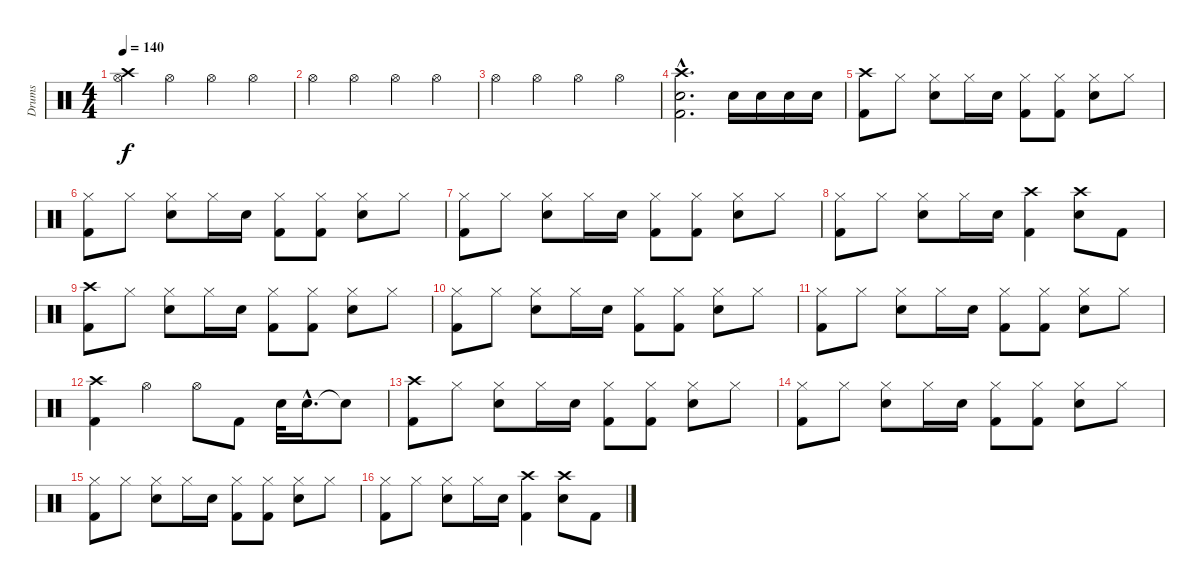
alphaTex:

\track ("Drums" "Drums") {instrument percussion}
\staff {score}
\articulation defaults
\ts (4 4)
\tempo 140
\clef neutral
\ks c
("Crash high (hit)" "Hi-Hat (open)").4{dy f} "Hi-Hat (open)".4 "Hi-Hat (open)".4 "Hi-Hat (open)".4 |
"Hi-Hat (open)".4 "Hi-Hat (open)".4 "Hi-Hat (open)".4 "Hi-Hat (open)".4 |
"Hi-Hat (open)".4 "Hi-Hat (open)".4 "Hi-Hat (open)".4 "Hi-Hat (open)".4 |
("Crash high (hit)"{hac} "Snare (hit) 2"{hac} "Kick (hit) 2"{hac}).2{d} "Snare (hit) 2".16 "Snare (hit) 2".16 "Snare (hit) 2".16 "Snare (hit) 2".16 |
("Crash high (hit)" "Kick (hit) 2").8 "Hi-Hat (closed)".8 ("Hi-Hat (closed)" "Snare (hit) 2").8 "Hi-Hat (closed)".16 "Snare (hit) 2".16 ("Hi-Hat (closed)" "Kick (hit) 2").8 ("Hi-Hat (closed)" "Kick (hit) 2").8 ("Hi-Hat (closed)" "Snare (hit) 2").8 "Hi-Hat (closed)".8 |
("Hi-Hat (closed)" "Kick (hit) 2").8 "Hi-Hat (closed)".8 ("Hi-Hat (closed)" "Snare (hit) 2").8 "Hi-Hat (closed)".16 "Snare (hit) 2".16 ("Hi-Hat (closed)" "Kick (hit) 2").8 ("Hi-Hat (closed)" "Kick (hit) 2").8 ("Hi-Hat (closed)" "Snare (hit) 2").8 "Hi-Hat (closed)".8 |
("Hi-Hat (closed)" "Kick (hit) 2").8 "Hi-Hat (closed)".8 ("Hi-Hat (closed)" "Snare (hit) 2").8 "Hi-Hat (closed)".16 "Snare (hit) 2".16 ("Hi-Hat (closed)" "Kick (hit) 2").8 ("Hi-Hat (closed)" "Kick (hit) 2").8 ("Hi-Hat (closed)" "Snare (hit) 2").8 "Hi-Hat (closed)".8 |
("Hi-Hat (closed)" "Kick (hit) 2").8 "Hi-Hat (closed)".8 ("Hi-Hat (closed)" "Snare (hit) 2").8 "Hi-Hat (closed)".16 "Snare (hit) 2".16 ("Crash high (hit)" "Kick (hit) 2").4 ("Crash high (hit)" "Snare (hit) 2").8 "Kick (hit) 2".8 |
("Crash high (hit)" "Kick (hit) 2").8 "Hi-Hat (closed)".8 ("Hi-Hat (closed)" "Snare (hit) 2").8 "Hi-Hat (closed)".16 "Snare (hit) 2".16 ("Hi-Hat (closed)" "Kick (hit) 2").8 ("Hi-Hat (closed)" "Kick (hit) 2").8 ("Hi-Hat (closed)" "Snare (hit) 2").8 "Hi-Hat (closed)".8 |
("Hi-Hat (closed)" "Kick (hit) 2").8 "Hi-Hat (closed)".8 ("Hi-Hat (closed)" "Snare (hit) 2").8 "Hi-Hat (closed)".16 "Snare (hit) 2".16 ("Hi-Hat (closed)" "Kick (hit) 2").8 ("Hi-Hat (closed)" "Kick (hit) 2").8 ("Hi-Hat (closed)" "Snare (hit) 2").8 "Hi-Hat (closed)".8 |
("Hi-Hat (closed)" "Kick (hit) 2").8 "Hi-Hat (closed)".8 ("Hi-Hat (closed)" "Snare (hit) 2").8 "Hi-Hat (closed)".16 "Snare (hit) 2".16 ("Hi-Hat (closed)" "Kick (hit) 2").8 ("Hi-Hat (closed)" "Kick (hit) 2").8 ("Hi-Hat (closed)" "Snare (hit) 2").8 "Hi-Hat (closed)".8 |
("Crash high (hit)" "Kick (hit) 2").4 "Hi-Hat (open)".4 "Hi-Hat (open)".8 "Kick (hit) 2".8 "Snare (hit) 2".32 "Snare (hit) 2"{hac}.16{d} "Snare (hit)"{t}.8 |
("Crash high (hit)" "Kick (hit) 2").8 "Hi-Hat (closed)".8 ("Hi-Hat (closed)" "Snare (hit) 2").8 "Hi-Hat (closed)".16 "Snare (hit) 2".16 ("Hi-Hat (closed)" "Kick (hit) 2").8 ("Hi-Hat (closed)" "Kick (hit) 2").8 ("Hi-Hat (closed)" "Snare (hit) 2").8 "Hi-Hat (closed)".8 |
("Hi-Hat (closed)" "Kick (hit) 2").8 "Hi-Hat (closed)".8 ("Hi-Hat (closed)" "Snare (hit) 2").8 "Hi-Hat (closed)".16 "Snare (hit) 2".16 ("Hi-Hat (closed)" "Kick (hit) 2").8 ("Hi-Hat (closed)" "Kick (hit) 2").8 ("Hi-Hat (closed)" "Snare (hit) 2").8 "Hi-Hat (closed)".8 |
("Hi-Hat (closed)" "Kick (hit) 2").8 "Hi-Hat (closed)".8 ("Hi-Hat (closed)" "Snare (hit) 2").8 "Hi-Hat (closed)".16 "Snare (hit) 2".16 ("Hi-Hat (closed)" "Kick (hit) 2").8 ("Hi-Hat (closed)" "Kick (hit) 2").8 ("Hi-Hat (closed)" "Snare (hit) 2").8 "Hi-Hat (closed)".8 |
("Hi-Hat (closed)" "Kick (hit) 2").8 "Hi-Hat (closed)".8 ("Hi-Hat (closed)" "Snare (hit) 2").8 "Hi-Hat (closed)".16 "Snare (hit) 2".16 ("Crash high (hit)" "Kick (hit) 2").4 ("Crash high (hit)" "Snare (hit) 2").8 "Kick (hit) 2".8
